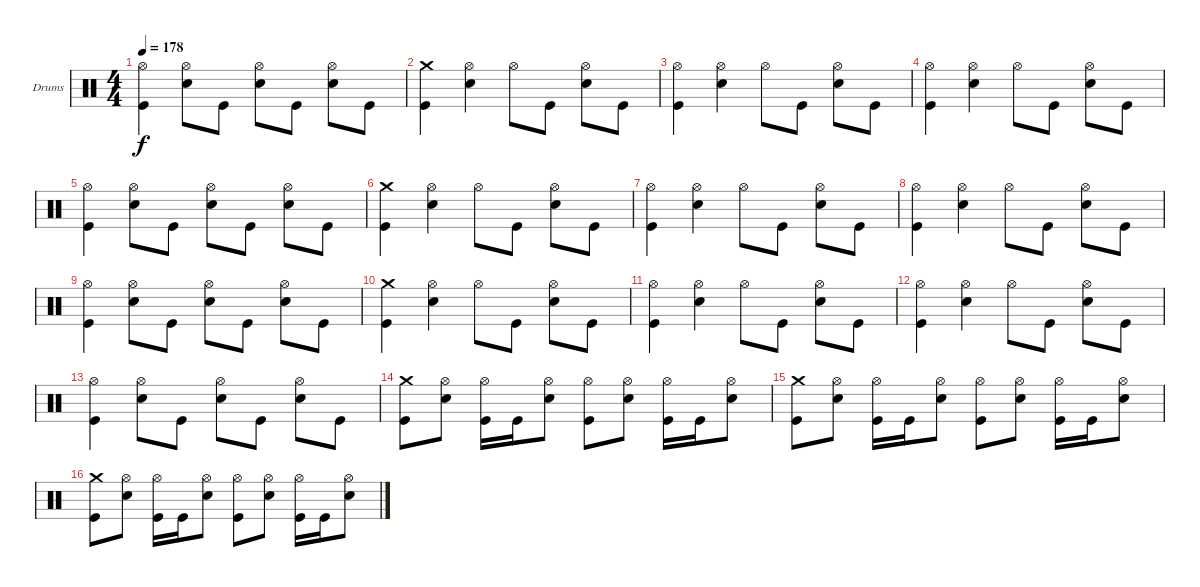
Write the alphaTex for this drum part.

\bracketExtendMode groupsimilarinstruments
\firstSystemTrackNameOrientation horizontal
\otherSystemsTrackNameOrientation horizontal
\track ("Drumkit" "Drums") {instrument percussion}
\staff {score}
\articulation defaults
\ts (4 4)
\tempo 178
\clef neutral
\ks c
("Hi-Hat (open)" "Kick (hit)").4{dy f} ("Hi-Hat (open)" "Snare (hit) 2").8 "Kick (hit)".8 ("Hi-Hat (open)" "Snare (hit) 2").8 "Kick (hit)".8 ("Hi-Hat (open)" "Snare (hit) 2").8 "Kick (hit)".8 |
("Crash medium (hit)" "Kick (hit)").4 ("Hi-Hat (open)" "Snare (hit) 2").4 "Hi-Hat (open)".8 "Kick (hit)".8 ("Hi-Hat (open)" "Snare (hit) 2").8 "Kick (hit)".8 |
("Hi-Hat (open)" "Kick (hit)").4 ("Hi-Hat (open)" "Snare (hit) 2").4 "Hi-Hat (open)".8 "Kick (hit)".8 ("Hi-Hat (open)" "Snare (hit) 2").8 "Kick (hit)".8 |
("Hi-Hat (open)" "Kick (hit)").4 ("Hi-Hat (open)" "Snare (hit) 2").4 "Hi-Hat (open)".8 "Kick (hit)".8 ("Hi-Hat (open)" "Snare (hit) 2").8 "Kick (hit)".8 |
("Hi-Hat (open)" "Kick (hit)").4 ("Hi-Hat (open)" "Snare (hit) 2").8 "Kick (hit)".8 ("Hi-Hat (open)" "Snare (hit) 2").8 "Kick (hit)".8 ("Hi-Hat (open)" "Snare (hit) 2").8 "Kick (hit)".8 |
("Crash medium (hit)" "Kick (hit)").4 ("Hi-Hat (open)" "Snare (hit) 2").4 "Hi-Hat (open)".8 "Kick (hit)".8 ("Hi-Hat (open)" "Snare (hit) 2").8 "Kick (hit)".8 |
("Hi-Hat (open)" "Kick (hit)").4 ("Hi-Hat (open)" "Snare (hit) 2").4 "Hi-Hat (open)".8 "Kick (hit)".8 ("Hi-Hat (open)" "Snare (hit) 2").8 "Kick (hit)".8 |
("Hi-Hat (open)" "Kick (hit)").4 ("Hi-Hat (open)" "Snare (hit) 2").4 "Hi-Hat (open)".8 "Kick (hit)".8 ("Hi-Hat (open)" "Snare (hit) 2").8 "Kick (hit)".8 |
("Hi-Hat (open)" "Kick (hit)").4 ("Hi-Hat (open)" "Snare (hit) 2").8 "Kick (hit)".8 ("Hi-Hat (open)" "Snare (hit) 2").8 "Kick (hit)".8 ("Hi-Hat (open)" "Snare (hit) 2").8 "Kick (hit)".8 |
("Crash medium (hit)" "Kick (hit)").4 ("Hi-Hat (open)" "Snare (hit) 2").4 "Hi-Hat (open)".8 "Kick (hit)".8 ("Hi-Hat (open)" "Snare (hit) 2").8 "Kick (hit)".8 |
("Hi-Hat (open)" "Kick (hit)").4 ("Hi-Hat (open)" "Snare (hit) 2").4 "Hi-Hat (open)".8 "Kick (hit)".8 ("Hi-Hat (open)" "Snare (hit) 2").8 "Kick (hit)".8 |
("Hi-Hat (open)" "Kick (hit)").4 ("Hi-Hat (open)" "Snare (hit) 2").4 "Hi-Hat (open)".8 "Kick (hit)".8 ("Hi-Hat (open)" "Snare (hit) 2").8 "Kick (hit)".8 |
("Hi-Hat (open)" "Kick (hit)").4 ("Hi-Hat (open)" "Snare (hit) 2").8 "Kick (hit)".8 ("Hi-Hat (open)" "Snare (hit) 2").8 "Kick (hit)".8 ("Hi-Hat (open)" "Snare (hit) 2").8 "Kick (hit)".8 |
("Crash medium (hit)" "Kick (hit)").8 ("Hi-Hat (open)" "Snare (hit) 2").8 ("Hi-Hat (open)" "Kick (hit)").16 "Kick (hit)".16 ("Hi-Hat (open)" "Snare (hit) 2").8 ("Hi-Hat (open)" "Kick (hit)").8 ("Hi-Hat (open)" "Snare (hit) 2").8 ("Hi-Hat (open)" "Kick (hit)").16 "Kick (hit)".16 ("Hi-Hat (open)" "Snare (hit) 2").8 |
("Crash medium (hit)" "Kick (hit)").8 ("Hi-Hat (open)" "Snare (hit) 2").8 ("Hi-Hat (open)" "Kick (hit)").16 "Kick (hit)".16 ("Hi-Hat (open)" "Snare (hit) 2").8 ("Hi-Hat (open)" "Kick (hit)").8 ("Hi-Hat (open)" "Snare (hit) 2").8 ("Hi-Hat (open)" "Kick (hit)").16 "Kick (hit)".16 ("Hi-Hat (open)" "Snare (hit) 2").8 |
("Crash medium (hit)" "Kick (hit)").8 ("Hi-Hat (open)" "Snare (hit) 2").8 ("Hi-Hat (open)" "Kick (hit)").16 "Kick (hit)".16 ("Hi-Hat (open)" "Snare (hit) 2").8 ("Hi-Hat (open)" "Kick (hit)").8 ("Hi-Hat (open)" "Snare (hit) 2").8 ("Hi-Hat (open)" "Kick (hit)").16 "Kick (hit)".16 ("Hi-Hat (open)" "Snare (hit) 2").8
